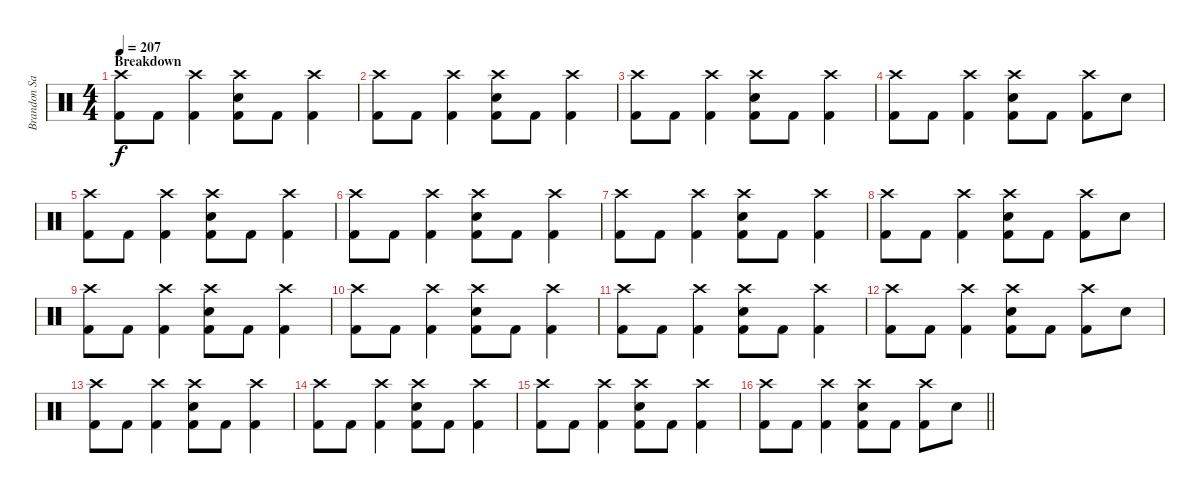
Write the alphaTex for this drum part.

\track ("Brandon Saller" "Brandon Sa") {instrument percussion}
\staff {score}
\articulation defaults
\ts (4 4)
\section ("" "Breakdown")
\tempo 207
\clef neutral
\ks c
("Crash high (hit)" "Kick (hit) 2").8{dy f} "Kick (hit) 2".8 ("Crash high (hit)" "Kick (hit) 2").4 ("Crash high (hit)" "Snare (hit) 2" "Kick (hit) 2").8 "Kick (hit) 2".8 ("Crash high (hit)" "Kick (hit) 2").4 |
("Crash high (hit)" "Kick (hit) 2").8 "Kick (hit) 2".8 ("Crash high (hit)" "Kick (hit) 2").4 ("Crash high (hit)" "Electric Snare (hit)" "Kick (hit) 2").8 "Kick (hit) 2".8 ("Crash high (hit)" "Kick (hit) 2").4 |
("Crash high (hit)" "Kick (hit) 2").8 "Kick (hit) 2".8 ("Crash high (hit)" "Kick (hit) 2").4 ("Crash high (hit)" "Electric Snare (hit)" "Kick (hit) 2").8 "Kick (hit) 2".8 ("Crash high (hit)" "Kick (hit) 2").4 |
("Crash high (hit)" "Kick (hit) 2").8 "Kick (hit) 2".8 ("Crash high (hit)" "Kick (hit) 2").4 ("Crash high (hit)" "Electric Snare (hit)" "Kick (hit) 2").8 "Kick (hit) 2".8 ("Crash high (hit)" "Kick (hit) 2").8 "Electric Snare (hit)".8 |
("Crash high (hit)" "Kick (hit) 2").8 "Kick (hit) 2".8 ("Crash high (hit)" "Kick (hit) 2").4 ("Crash high (hit)" "Electric Snare (hit)" "Kick (hit) 2").8 "Kick (hit) 2".8 ("Crash high (hit)" "Kick (hit) 2").4 |
("Crash high (hit)" "Kick (hit) 2").8 "Kick (hit) 2".8 ("Crash high (hit)" "Kick (hit) 2").4 ("Crash high (hit)" "Electric Snare (hit)" "Kick (hit) 2").8 "Kick (hit) 2".8 ("Crash high (hit)" "Kick (hit) 2").4 |
("Crash high (hit)" "Kick (hit) 2").8 "Kick (hit) 2".8 ("Crash high (hit)" "Kick (hit) 2").4 ("Crash high (hit)" "Electric Snare (hit)" "Kick (hit) 2").8 "Kick (hit) 2".8 ("Crash high (hit)" "Kick (hit) 2").4 |
("Crash high (hit)" "Kick (hit) 2").8 "Kick (hit) 2".8 ("Crash high (hit)" "Kick (hit) 2").4 ("Crash high (hit)" "Electric Snare (hit)" "Kick (hit) 2").8 "Kick (hit) 2".8 ("Crash high (hit)" "Kick (hit) 2").8 "Electric Snare (hit)".8 |
("Crash high (hit)" "Kick (hit) 2").8 "Kick (hit) 2".8 ("Crash high (hit)" "Kick (hit) 2").4 ("Crash high (hit)" "Electric Snare (hit)" "Kick (hit) 2").8 "Kick (hit) 2".8 ("Crash high (hit)" "Kick (hit) 2").4 |
("Crash high (hit)" "Kick (hit) 2").8 "Kick (hit) 2".8 ("Crash high (hit)" "Kick (hit) 2").4 ("Crash high (hit)" "Electric Snare (hit)" "Kick (hit) 2").8 "Kick (hit) 2".8 ("Crash high (hit)" "Kick (hit) 2").4 |
("Crash high (hit)" "Kick (hit) 2").8 "Kick (hit) 2".8 ("Crash high (hit)" "Kick (hit) 2").4 ("Crash high (hit)" "Electric Snare (hit)" "Kick (hit) 2").8 "Kick (hit) 2".8 ("Crash high (hit)" "Kick (hit) 2").4 |
("Crash high (hit)" "Kick (hit) 2").8 "Kick (hit) 2".8 ("Crash high (hit)" "Kick (hit) 2").4 ("Crash high (hit)" "Electric Snare (hit)" "Kick (hit) 2").8 "Kick (hit) 2".8 ("Crash high (hit)" "Kick (hit) 2").8 "Electric Snare (hit)".8 |
("Crash high (hit)" "Kick (hit) 2").8 "Kick (hit) 2".8 ("Crash high (hit)" "Kick (hit) 2").4 ("Crash high (hit)" "Electric Snare (hit)" "Kick (hit) 2").8 "Kick (hit) 2".8 ("Crash high (hit)" "Kick (hit) 2").4 |
("Crash high (hit)" "Kick (hit) 2").8 "Kick (hit) 2".8 ("Crash high (hit)" "Kick (hit) 2").4 ("Crash high (hit)" "Electric Snare (hit)" "Kick (hit) 2").8 "Kick (hit) 2".8 ("Crash high (hit)" "Kick (hit) 2").4 |
("Crash high (hit)" "Kick (hit) 2").8 "Kick (hit) 2".8 ("Crash high (hit)" "Kick (hit) 2").4 ("Crash high (hit)" "Electric Snare (hit)" "Kick (hit) 2").8 "Kick (hit) 2".8 ("Crash high (hit)" "Kick (hit) 2").4 |
\barLineRight lightlight
("Crash high (hit)" "Kick (hit) 2").8 "Kick (hit) 2".8 ("Crash high (hit)" "Kick (hit) 2").4 ("Crash high (hit)" "Electric Snare (hit)" "Kick (hit) 2").8 "Kick (hit) 2".8 ("Crash high (hit)" "Kick (hit) 2").8 "Electric Snare (hit)".8
